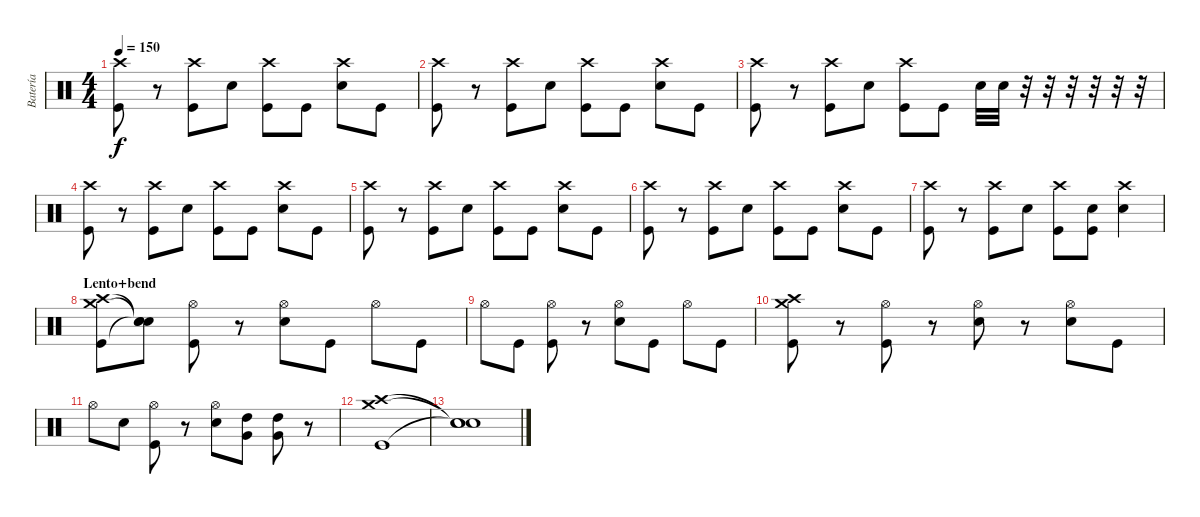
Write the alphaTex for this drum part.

\track ("Batería" "Batería") {instrument percussion}
\staff {score}
\articulation defaults
\ts (4 4)
\tempo 150
\clef neutral
\ks c
("Crash high (hit)" "Kick (hit)").8{dy f} r.8 ("Crash high (hit)" "Kick (hit)").8 "Snare (hit) 2".8 ("Crash high (hit)" "Kick (hit)").8 "Kick (hit)".8 ("Crash high (hit)" "Snare (hit) 2").8 "Kick (hit)".8 |
("Crash high (hit)" "Kick (hit)").8 r.8 ("Crash high (hit)" "Kick (hit)").8 "Snare (hit) 2".8 ("Crash high (hit)" "Kick (hit)").8 "Kick (hit)".8 ("Crash high (hit)" "Snare (hit) 2").8 "Kick (hit)".8 |
("Crash high (hit)" "Kick (hit)").8 r.8 ("Crash high (hit)" "Kick (hit)").8 "Snare (hit) 2".8 ("Crash high (hit)" "Kick (hit)").8 "Kick (hit)".8 "Snare (hit) 2".32 "Snare (hit) 2".32 r.32 r.32 r.32 r.32 r.32 r.32 |
("Crash high (hit)" "Kick (hit)").8 r.8 ("Crash high (hit)" "Kick (hit)").8 "Snare (hit) 2".8 ("Crash high (hit)" "Kick (hit)").8 "Kick (hit)".8 ("Crash high (hit)" "Snare (hit) 2").8 "Kick (hit)".8 |
("Crash high (hit)" "Kick (hit)").8 r.8 ("Crash high (hit)" "Kick (hit)").8 "Snare (hit) 2".8 ("Crash high (hit)" "Kick (hit)").8 "Kick (hit)".8 ("Crash high (hit)" "Snare (hit) 2").8 "Kick (hit)".8 |
("Crash high (hit)" "Kick (hit)").8 r.8 ("Crash high (hit)" "Kick (hit)").8 "Snare (hit) 2".8 ("Crash high (hit)" "Kick (hit)").8 "Kick (hit)".8 ("Crash high (hit)" "Snare (hit) 2").8 "Kick (hit)".8 |
("Crash high (hit)" "Kick (hit)").8 r.8 ("Crash high (hit)" "Kick (hit)").8 "Snare (hit) 2".8 ("Crash high (hit)" "Kick (hit)").8 ("Snare (hit) 2" "Kick (hit)").8 ("Crash high (hit)" "Snare (hit) 2").4 |
\section ("" "Lento+bend")
("Crash high (hit)" "Crash medium (hit)" "Kick (hit)").8 ("Snare (hit)"{t} "Snare (hit)"{t} "Snare (hit)"{t}).8 ("Hi-Hat (open)" "Kick (hit)").8 r.8 ("Hi-Hat (open)" "Snare (hit) 2").8 "Kick (hit)".8 "Hi-Hat (open)".8 "Kick (hit)".8 |
"Hi-Hat (open)".8 "Kick (hit)".8 ("Hi-Hat (open)" "Kick (hit)").8 r.8 ("Hi-Hat (open)" "Snare (hit) 2").8 "Kick (hit)".8 "Hi-Hat (open)".8 "Kick (hit)".8 |
("Crash high (hit)" "Crash medium (hit)" "Kick (hit)").8 r.8 ("Hi-Hat (open)" "Kick (hit)").8 r.8 ("Hi-Hat (open)" "Snare (hit) 2").8 r.8 ("Hi-Hat (open)" "Snare (hit) 2").8 "Kick (hit)".8 |
"Hi-Hat (open)".8 "Snare (hit) 2".8 ("Hi-Hat (open)" "Kick (hit)").8 r.8 ("Hi-Hat (open)" "Snare (hit) 2").8 ("High Tom (hit)" "Very Low Tom (hit)").8 ("High Tom (hit)" "Very Low Tom (hit)").8 r.8 |
("Crash high (hit)" "Crash medium (hit)" "Kick (hit)").1 |
("Snare (hit)"{t} "Snare (hit)"{t} "Snare (hit)"{t}).1
